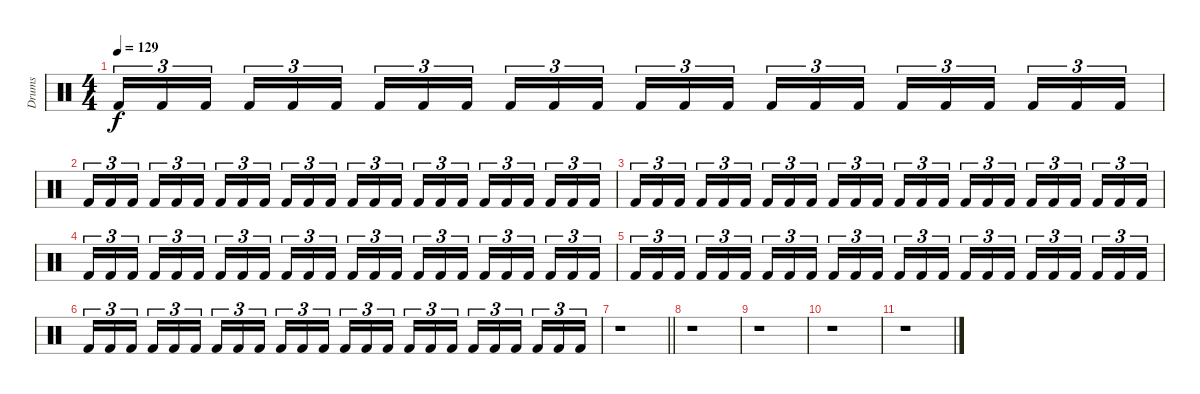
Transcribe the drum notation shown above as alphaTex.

\track ("Drums" "Drums") {instrument percussion}
\staff {score}
\articulation defaults
\ts (4 4)
\tempo 129
\clef neutral
\ks c "Kick (hit) 2".16{tu (3 2) dy f} "Kick (hit) 2".16{tu (3 2)} "Kick (hit) 2".16{tu (3 2) beam splitsecondary} "Kick (hit) 2".16{tu (3 2)} "Kick (hit) 2".16{tu (3 2)} "Kick (hit) 2".16{tu (3 2)} "Kick (hit) 2".16{tu (3 2)} "Kick (hit) 2".16{tu (3 2)} "Kick (hit) 2".16{tu (3 2) beam splitsecondary} "Kick (hit) 2".16{tu (3 2)} "Kick (hit) 2".16{tu (3 2)} "Kick (hit) 2".16{tu (3 2)} "Kick (hit) 2".16{tu (3 2)} "Kick (hit) 2".16{tu (3 2)} "Kick (hit) 2".16{tu (3 2) beam splitsecondary} "Kick (hit) 2".16{tu (3 2)} "Kick (hit) 2".16{tu (3 2)} "Kick (hit) 2".16{tu (3 2)} "Kick (hit) 2".16{tu (3 2)} "Kick (hit) 2".16{tu (3 2)} "Kick (hit) 2".16{tu (3 2) beam splitsecondary} "Kick (hit) 2".16{tu (3 2)} "Kick (hit) 2".16{tu (3 2)} "Kick (hit) 2".16{tu (3 2)}
|
"Kick (hit) 2".16{tu (3 2)} "Kick (hit) 2".16{tu (3 2)} "Kick (hit) 2".16{tu (3 2) beam splitsecondary} "Kick (hit) 2".16{tu (3 2)} "Kick (hit) 2".16{tu (3 2)} "Kick (hit) 2".16{tu (3 2)} "Kick (hit) 2".16{tu (3 2)} "Kick (hit) 2".16{tu (3 2)} "Kick (hit) 2".16{tu (3 2) beam splitsecondary} "Kick (hit) 2".16{tu (3 2)} "Kick (hit) 2".16{tu (3 2)} "Kick (hit) 2".16{tu (3 2)} "Kick (hit) 2".16{tu (3 2)} "Kick (hit) 2".16{tu (3 2)} "Kick (hit) 2".16{tu (3 2) beam splitsecondary} "Kick (hit) 2".16{tu (3 2)} "Kick (hit) 2".16{tu (3 2)} "Kick (hit) 2".16{tu (3 2)} "Kick (hit) 2".16{tu (3 2)} "Kick (hit) 2".16{tu (3 2)} "Kick (hit) 2".16{tu (3 2) beam splitsecondary} "Kick (hit) 2".16{tu (3 2)} "Kick (hit) 2".16{tu (3 2)} "Kick (hit) 2".16{tu (3 2)} |
"Kick (hit) 2".16{tu (3 2)} "Kick (hit) 2".16{tu (3 2)} "Kick (hit) 2".16{tu (3 2) beam splitsecondary} "Kick (hit) 2".16{tu (3 2)} "Kick (hit) 2".16{tu (3 2)} "Kick (hit) 2".16{tu (3 2)} "Kick (hit) 2".16{tu (3 2)} "Kick (hit) 2".16{tu (3 2)} "Kick (hit) 2".16{tu (3 2) beam splitsecondary} "Kick (hit) 2".16{tu (3 2)} "Kick (hit) 2".16{tu (3 2)} "Kick (hit) 2".16{tu (3 2)} "Kick (hit) 2".16{tu (3 2)} "Kick (hit) 2".16{tu (3 2)} "Kick (hit) 2".16{tu (3 2) beam splitsecondary} "Kick (hit) 2".16{tu (3 2)} "Kick (hit) 2".16{tu (3 2)} "Kick (hit) 2".16{tu (3 2)} "Kick (hit) 2".16{tu (3 2)} "Kick (hit) 2".16{tu (3 2)} "Kick (hit) 2".16{tu (3 2) beam splitsecondary} "Kick (hit) 2".16{tu (3 2)} "Kick (hit) 2".16{tu (3 2)} "Kick (hit) 2".16{tu (3 2)} |
"Kick (hit) 2".16{tu (3 2)} "Kick (hit) 2".16{tu (3 2)} "Kick (hit) 2".16{tu (3 2) beam splitsecondary} "Kick (hit) 2".16{tu (3 2)} "Kick (hit) 2".16{tu (3 2)} "Kick (hit) 2".16{tu (3 2)} "Kick (hit) 2".16{tu (3 2)} "Kick (hit) 2".16{tu (3 2)} "Kick (hit) 2".16{tu (3 2) beam splitsecondary} "Kick (hit) 2".16{tu (3 2)} "Kick (hit) 2".16{tu (3 2)} "Kick (hit) 2".16{tu (3 2)} "Kick (hit) 2".16{tu (3 2)} "Kick (hit) 2".16{tu (3 2)} "Kick (hit) 2".16{tu (3 2) beam splitsecondary} "Kick (hit) 2".16{tu (3 2)} "Kick (hit) 2".16{tu (3 2)} "Kick (hit) 2".16{tu (3 2)} "Kick (hit) 2".16{tu (3 2)} "Kick (hit) 2".16{tu (3 2)} "Kick (hit) 2".16{tu (3 2) beam splitsecondary} "Kick (hit) 2".16{tu (3 2)} "Kick (hit) 2".16{tu (3 2)} "Kick (hit) 2".16{tu (3 2)} |
"Kick (hit) 2".16{tu (3 2)} "Kick (hit) 2".16{tu (3 2)} "Kick (hit) 2".16{tu (3 2) beam splitsecondary} "Kick (hit) 2".16{tu (3 2)} "Kick (hit) 2".16{tu (3 2)} "Kick (hit) 2".16{tu (3 2)} "Kick (hit) 2".16{tu (3 2)} "Kick (hit) 2".16{tu (3 2)} "Kick (hit) 2".16{tu (3 2) beam splitsecondary} "Kick (hit) 2".16{tu (3 2)} "Kick (hit) 2".16{tu (3 2)} "Kick (hit) 2".16{tu (3 2)} "Kick (hit) 2".16{tu (3 2)} "Kick (hit) 2".16{tu (3 2)} "Kick (hit) 2".16{tu (3 2) beam splitsecondary} "Kick (hit) 2".16{tu (3 2)} "Kick (hit) 2".16{tu (3 2)} "Kick (hit) 2".16{tu (3 2)} "Kick (hit) 2".16{tu (3 2)} "Kick (hit) 2".16{tu (3 2)} "Kick (hit) 2".16{tu (3 2) beam splitsecondary} "Kick (hit) 2".16{tu (3 2)} "Kick (hit) 2".16{tu (3 2)} "Kick (hit) 2".16{tu (3 2)} |
"Kick (hit) 2".16{tu (3 2)} "Kick (hit) 2".16{tu (3 2)} "Kick (hit) 2".16{tu (3 2) beam splitsecondary} "Kick (hit) 2".16{tu (3 2)} "Kick (hit) 2".16{tu (3 2)} "Kick (hit) 2".16{tu (3 2)} "Kick (hit) 2".16{tu (3 2)} "Kick (hit) 2".16{tu (3 2)} "Kick (hit) 2".16{tu (3 2) beam splitsecondary} "Kick (hit) 2".16{tu (3 2)} "Kick (hit) 2".16{tu (3 2)} "Kick (hit) 2".16{tu (3 2)} "Kick (hit) 2".16{tu (3 2)} "Kick (hit) 2".16{tu (3 2)} "Kick (hit) 2".16{tu (3 2) beam splitsecondary} "Kick (hit) 2".16{tu (3 2)} "Kick (hit) 2".16{tu (3 2)} "Kick (hit) 2".16{tu (3 2)} "Kick (hit) 2".16{tu (3 2)} "Kick (hit) 2".16{tu (3 2)} "Kick (hit) 2".16{tu (3 2) beam splitsecondary} "Kick (hit) 2".16{tu (3 2)} "Kick (hit) 2".16{tu (3 2)} "Kick (hit) 2".16{tu (3 2)} |
\barLineRight lightlight
r.1 |
r.1 |
r.1 |
r.1 |
r.1
